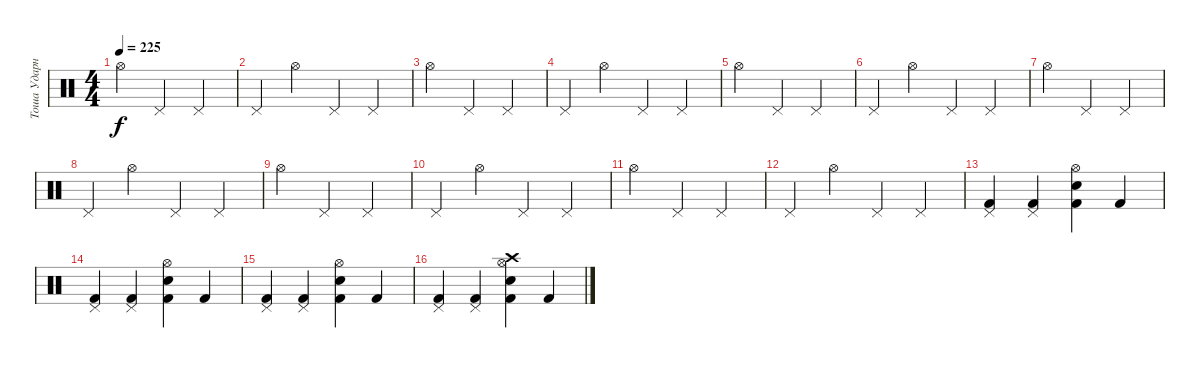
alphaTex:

\track ("Тоша Ударные" "Тоша Ударн") {instrument percussion}
\staff {score}
\articulation defaults
\ts (4 4)
\tempo 225
\clef neutral
\ks c "Hi-Hat (open)".4{dy f} "Pedal Hi-Hat (hit)".4 "Pedal Hi-Hat (hit)".4
|
"Pedal Hi-Hat (hit)".4 "Hi-Hat (open)".4 "Pedal Hi-Hat (hit)".4 "Pedal Hi-Hat (hit)".4 |
"Hi-Hat (open)".4 "Pedal Hi-Hat (hit)".4 "Pedal Hi-Hat (hit)".4 |
"Pedal Hi-Hat (hit)".4 "Hi-Hat (open)".4 "Pedal Hi-Hat (hit)".4 "Pedal Hi-Hat (hit)".4 |
"Hi-Hat (open)".4 "Pedal Hi-Hat (hit)".4 "Pedal Hi-Hat (hit)".4 |
"Pedal Hi-Hat (hit)".4 "Hi-Hat (open)".4 "Pedal Hi-Hat (hit)".4 "Pedal Hi-Hat (hit)".4 |
"Hi-Hat (open)".4 "Pedal Hi-Hat (hit)".4 "Pedal Hi-Hat (hit)".4 |
"Pedal Hi-Hat (hit)".4 "Hi-Hat (open)".4 "Pedal Hi-Hat (hit)".4 "Pedal Hi-Hat (hit)".4 |
"Hi-Hat (open)".4 "Pedal Hi-Hat (hit)".4 "Pedal Hi-Hat (hit)".4 |
"Pedal Hi-Hat (hit)".4 "Hi-Hat (open)".4 "Pedal Hi-Hat (hit)".4 "Pedal Hi-Hat (hit)".4 |
"Hi-Hat (open)".4 "Pedal Hi-Hat (hit)".4 "Pedal Hi-Hat (hit)".4 |
"Pedal Hi-Hat (hit)".4 "Hi-Hat (open)".4 "Pedal Hi-Hat (hit)".4 "Pedal Hi-Hat (hit)".4 |
("Pedal Hi-Hat (hit)" "Kick (hit) 2").4 ("Pedal Hi-Hat (hit)" "Kick (hit) 2").4 ("Electric Snare (hit)" "Hi-Hat (open)" "Kick (hit) 2").4 "Kick (hit) 2".4 |
("Pedal Hi-Hat (hit)" "Kick (hit) 2").4 ("Pedal Hi-Hat (hit)" "Kick (hit) 2").4 ("Electric Snare (hit)" "Hi-Hat (open)" "Kick (hit) 2").4 "Kick (hit) 2".4 |
("Pedal Hi-Hat (hit)" "Kick (hit) 2").4 ("Pedal Hi-Hat (hit)" "Kick (hit) 2").4 ("Electric Snare (hit)" "Hi-Hat (open)" "Kick (hit) 2").4 "Kick (hit) 2".4 |
("Pedal Hi-Hat (hit)" "Kick (hit) 2").4 ("Pedal Hi-Hat (hit)" "Kick (hit) 2").4 ("Crash high (hit)" "Electric Snare (hit)" "Hi-Hat (open)" "Kick (hit) 2").4 "Kick (hit) 2".4
